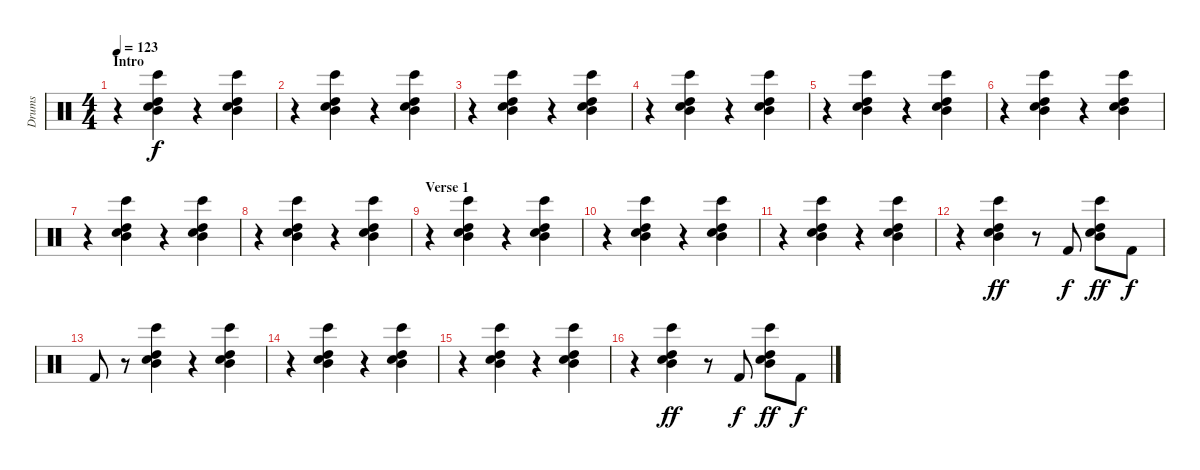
\track ("Drums" "Drums") {instrument percussion}
\staff {score}
\articulation defaults
\ts (4 4)
\section ("" "Intro")
\tempo 123
\clef neutral
\ks c
r.4{dy f} ("Bongo High (hit)" "High Tom (hit)" "Mid Tom (hit)" "Snare (hit) 2").4 r.4 ("Bongo High (hit)" "High Tom (hit)" "Mid Tom (hit)" "Snare (hit) 2").4 |
r.4 ("Bongo High (hit)" "High Tom (hit)" "Mid Tom (hit)" "Snare (hit) 2").4 r.4 ("Bongo High (hit)" "High Tom (hit)" "Mid Tom (hit)" "Snare (hit) 2").4 |
r.4 ("Bongo High (hit)" "High Tom (hit)" "Mid Tom (hit)" "Snare (hit) 2").4 r.4 ("Bongo High (hit)" "High Tom (hit)" "Mid Tom (hit)" "Snare (hit) 2").4 |
r.4 ("Bongo High (hit)" "High Tom (hit)" "Mid Tom (hit)" "Snare (hit) 2").4 r.4 ("Bongo High (hit)" "High Tom (hit)" "Mid Tom (hit)" "Snare (hit) 2").4 |
r.4 ("Bongo High (hit)" "High Tom (hit)" "Mid Tom (hit)" "Snare (hit) 2").4 r.4 ("Bongo High (hit)" "High Tom (hit)" "Mid Tom (hit)" "Snare (hit) 2").4 |
r.4 ("Bongo High (hit)" "High Tom (hit)" "Mid Tom (hit)" "Snare (hit) 2").4 r.4 ("Bongo High (hit)" "High Tom (hit)" "Mid Tom (hit)" "Snare (hit) 2").4 |
r.4 ("Bongo High (hit)" "High Tom (hit)" "Mid Tom (hit)" "Snare (hit) 2").4 r.4 ("Bongo High (hit)" "High Tom (hit)" "Mid Tom (hit)" "Snare (hit) 2").4 |
r.4 ("Bongo High (hit)" "High Tom (hit)" "Mid Tom (hit)" "Snare (hit) 2").4 r.4 ("Bongo High (hit)" "High Tom (hit)" "Mid Tom (hit)" "Snare (hit) 2").4 |
\section ("" "Verse 1")
r.4 ("Bongo High (hit)" "High Tom (hit)" "Mid Tom (hit)" "Snare (hit) 2").4 r.4 ("Bongo High (hit)" "High Tom (hit)" "Mid Tom (hit)" "Snare (hit) 2").4 |
r.4 ("Bongo High (hit)" "High Tom (hit)" "Mid Tom (hit)" "Snare (hit) 2").4 r.4 ("Bongo High (hit)" "High Tom (hit)" "Mid Tom (hit)" "Snare (hit) 2").4 |
r.4 ("Bongo High (hit)" "High Tom (hit)" "Mid Tom (hit)" "Snare (hit) 2").4 r.4 ("Bongo High (hit)" "High Tom (hit)" "Mid Tom (hit)" "Snare (hit) 2").4 |
r.4 ("Bongo High (hit)" "High Tom (hit)" "Mid Tom (hit)" "Snare (hit) 2").4{dy ff} r.8 "Kick (hit) 2".8{dy f} ("Bongo High (hit)" "High Tom (hit)" "Mid Tom (hit)" "Snare (hit) 2").8{dy ff} "Kick (hit) 2".8{dy f} |
"Kick (hit) 2".8 r.8 ("Bongo High (hit)" "High Tom (hit)" "Mid Tom (hit)" "Snare (hit) 2").4 r.4 ("Bongo High (hit)" "High Tom (hit)" "Mid Tom (hit)" "Snare (hit) 2").4 |
r.4 ("Bongo High (hit)" "High Tom (hit)" "Mid Tom (hit)" "Snare (hit) 2").4 r.4 ("Bongo High (hit)" "High Tom (hit)" "Mid Tom (hit)" "Snare (hit) 2").4 |
r.4 ("Bongo High (hit)" "High Tom (hit)" "Mid Tom (hit)" "Snare (hit) 2").4 r.4 ("Bongo High (hit)" "High Tom (hit)" "Mid Tom (hit)" "Snare (hit) 2").4 |
r.4 ("Bongo High (hit)" "High Tom (hit)" "Mid Tom (hit)" "Snare (hit) 2").4{dy ff} r.8 "Kick (hit) 2".8{dy f} ("Bongo High (hit)" "High Tom (hit)" "Mid Tom (hit)" "Snare (hit) 2").8{dy ff} "Kick (hit) 2".8{dy f}
